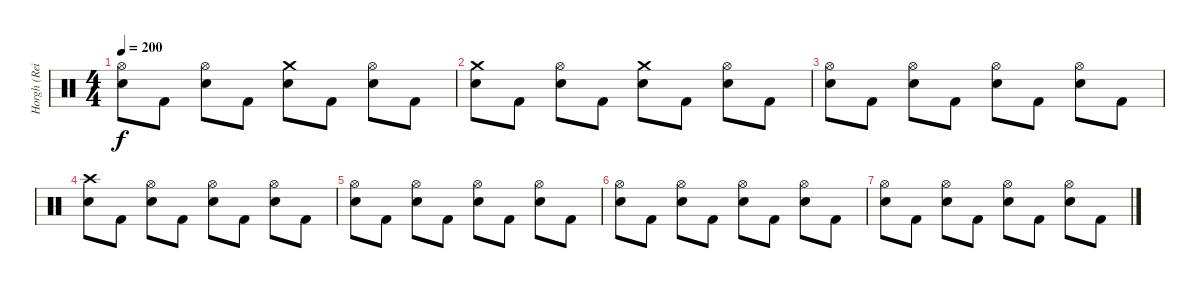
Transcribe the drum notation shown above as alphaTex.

\track ("Horgh (Reidar Horghagen)" "Horgh (Rei") {instrument percussion}
\staff {score}
\articulation defaults
\ts (4 4)
\tempo 200
\clef neutral
\ks c
("Hi-Hat (open)" "Snare (hit) 2").8{dy f} "Kick (hit) 2".8 ("Hi-Hat (open)" "Snare (hit) 2").8 "Kick (hit) 2".8 ("Crash medium (hit)" "Snare (hit) 2").8 "Kick (hit) 2".8 ("Hi-Hat (open)" "Snare (hit) 2").8 "Kick (hit) 2".8 |
("Crash medium (hit)" "Snare (hit) 2").8 "Kick (hit) 2".8 ("Hi-Hat (open)" "Snare (hit) 2").8 "Kick (hit) 2".8 ("Crash medium (hit)" "Snare (hit) 2").8 "Kick (hit) 2".8 ("Hi-Hat (open)" "Snare (hit) 2").8 "Kick (hit) 2".8 |
("Hi-Hat (open)" "Snare (hit) 2").8 "Kick (hit) 2".8 ("Hi-Hat (open)" "Snare (hit) 2").8 "Kick (hit) 2".8 ("Hi-Hat (open)" "Snare (hit) 2").8 "Kick (hit) 2".8 ("Hi-Hat (open)" "Snare (hit) 2").8 "Kick (hit) 2".8 |
("Crash high (hit)" "Snare (hit) 2").8 "Kick (hit) 2".8 ("Hi-Hat (open)" "Snare (hit) 2").8 "Kick (hit) 2".8 ("Hi-Hat (open)" "Snare (hit) 2").8 "Kick (hit) 2".8 ("Hi-Hat (open)" "Snare (hit) 2").8 "Kick (hit) 2".8 |
("Hi-Hat (open)" "Snare (hit) 2").8 "Kick (hit) 2".8 ("Hi-Hat (open)" "Snare (hit) 2").8 "Kick (hit) 2".8 ("Hi-Hat (open)" "Snare (hit) 2").8 "Kick (hit) 2".8 ("Hi-Hat (open)" "Snare (hit) 2").8 "Kick (hit) 2".8 |
("Hi-Hat (open)" "Snare (hit) 2").8 "Kick (hit) 2".8 ("Hi-Hat (open)" "Snare (hit) 2").8 "Kick (hit) 2".8 ("Hi-Hat (open)" "Snare (hit) 2").8 "Kick (hit) 2".8 ("Hi-Hat (open)" "Snare (hit) 2").8 "Kick (hit) 2".8 |
("Hi-Hat (open)" "Snare (hit) 2").8 "Kick (hit) 2".8 ("Hi-Hat (open)" "Snare (hit) 2").8 "Kick (hit) 2".8 ("Hi-Hat (open)" "Snare (hit) 2").8 "Kick (hit) 2".8 ("Hi-Hat (open)" "Snare (hit) 2").8 "Kick (hit) 2".8
